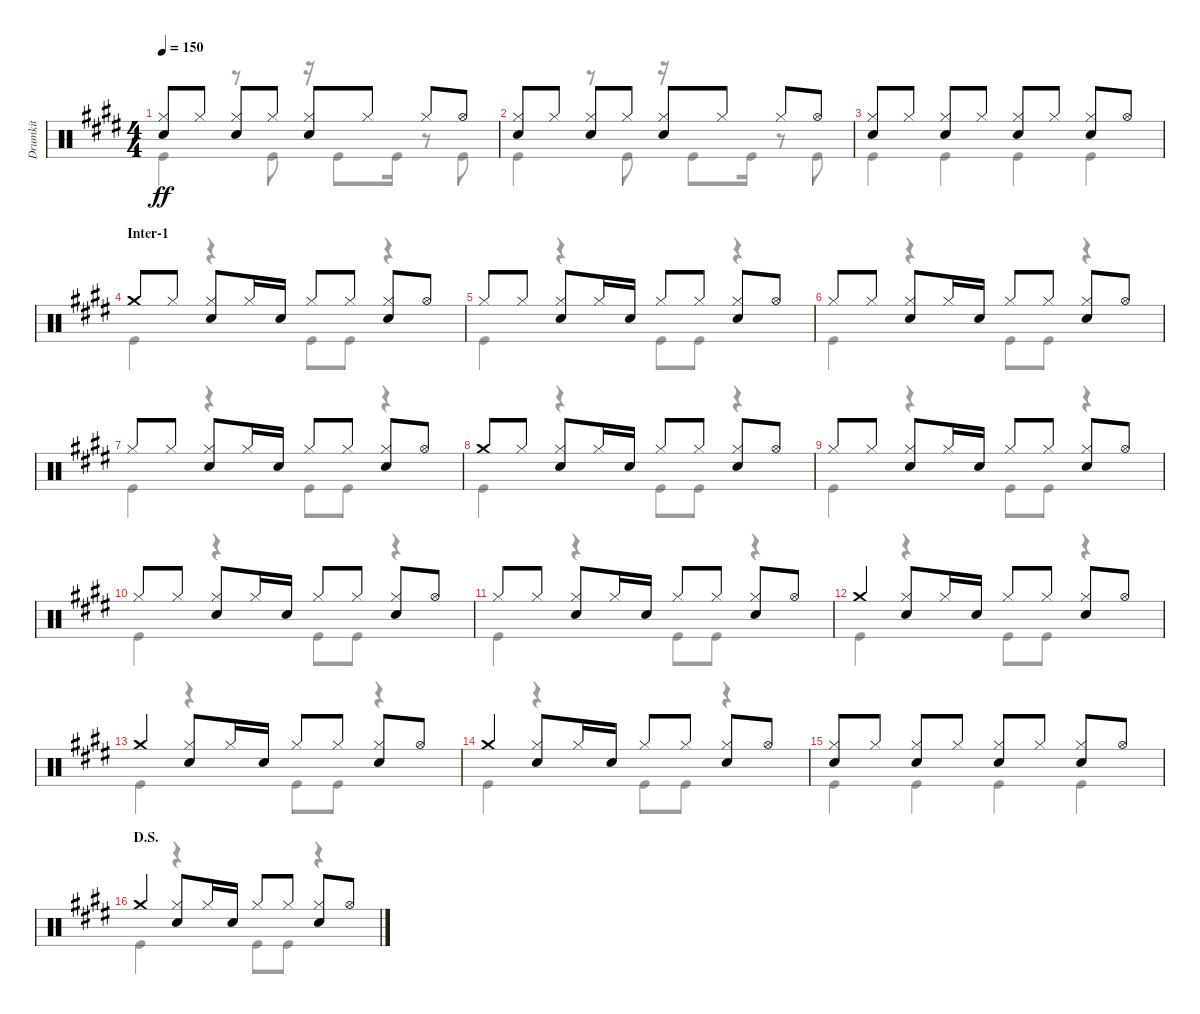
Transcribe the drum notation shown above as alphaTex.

\track ("Drumkit" "Drumkit") {instrument percussion}
\staff {score}
\articulation defaults
\voice
\ts (4 4)
\tempo 150
\clef neutral
\ks e
("Snare (hit) 2" "Hi-Hat (closed)").8{dy ff} "Hi-Hat (closed)".8 ("Hi-Hat (closed)" "Snare (hit) 2").8 "Hi-Hat (closed)".8 ("Hi-Hat (closed)" "Snare (hit) 2").8 "Hi-Hat (closed)".8 "Hi-Hat (closed)".8 "Hi-Hat (open)".8 |
("Snare (hit) 2" "Hi-Hat (closed)").8 "Hi-Hat (closed)".8 ("Hi-Hat (closed)" "Snare (hit) 2").8 "Hi-Hat (closed)".8 ("Hi-Hat (closed)" "Snare (hit) 2").8 "Hi-Hat (closed)".8 "Hi-Hat (closed)".8 "Hi-Hat (open)".8 |
("Snare (hit) 2" "Hi-Hat (closed)").8 "Hi-Hat (closed)".8 ("Hi-Hat (closed)" "Snare (hit) 2").8 "Hi-Hat (closed)".8 ("Hi-Hat (closed)" "Snare (hit) 2").8 "Hi-Hat (closed)".8 ("Hi-Hat (closed)" "Snare (hit) 2").8 "Hi-Hat (open)".8 |
\section ("" "Inter-1")
"Crash medium (hit)".8 "Hi-Hat (closed)".8 ("Hi-Hat (closed)" "Snare (hit) 2").8 "Hi-Hat (closed)".16 "Snare (hit) 2".16 "Hi-Hat (closed)".8 "Hi-Hat (closed)".8 ("Hi-Hat (closed)" "Snare (hit) 2").8 "Hi-Hat (open)".8 |
"Hi-Hat (closed)".8 "Hi-Hat (closed)".8 ("Hi-Hat (closed)" "Snare (hit) 2").8 "Hi-Hat (closed)".16 "Snare (hit) 2".16 "Hi-Hat (closed)".8 "Hi-Hat (closed)".8 ("Hi-Hat (closed)" "Snare (hit) 2").8 "Hi-Hat (open)".8 |
"Hi-Hat (closed)".8 "Hi-Hat (closed)".8 ("Hi-Hat (closed)" "Snare (hit) 2").8 "Hi-Hat (closed)".16 "Snare (hit) 2".16 "Hi-Hat (closed)".8 "Hi-Hat (closed)".8 ("Hi-Hat (closed)" "Snare (hit) 2").8 "Hi-Hat (open)".8 |
"Hi-Hat (closed)".8 "Hi-Hat (closed)".8 ("Hi-Hat (closed)" "Snare (hit) 2").8 "Hi-Hat (closed)".16 "Snare (hit) 2".16 "Hi-Hat (closed)".8 "Hi-Hat (closed)".8 ("Hi-Hat (closed)" "Snare (hit) 2").8 "Hi-Hat (open)".8 |
"Crash medium (hit)".8 "Hi-Hat (closed)".8 ("Hi-Hat (closed)" "Snare (hit) 2").8 "Hi-Hat (closed)".16 "Snare (hit) 2".16 "Hi-Hat (closed)".8 "Hi-Hat (closed)".8 ("Hi-Hat (closed)" "Snare (hit) 2").8 "Hi-Hat (open)".8 |
"Hi-Hat (closed)".8 "Hi-Hat (closed)".8 ("Hi-Hat (closed)" "Snare (hit) 2").8 "Hi-Hat (closed)".16 "Snare (hit) 2".16 "Hi-Hat (closed)".8 "Hi-Hat (closed)".8 ("Hi-Hat (closed)" "Snare (hit) 2").8 "Hi-Hat (open)".8 |
"Hi-Hat (closed)".8 "Hi-Hat (closed)".8 ("Hi-Hat (closed)" "Snare (hit) 2").8 "Hi-Hat (closed)".16 "Snare (hit) 2".16 "Hi-Hat (closed)".8 "Hi-Hat (closed)".8 ("Hi-Hat (closed)" "Snare (hit) 2").8 "Hi-Hat (open)".8 |
"Hi-Hat (closed)".8 "Hi-Hat (closed)".8 ("Hi-Hat (closed)" "Snare (hit) 2").8 "Hi-Hat (closed)".16 "Snare (hit) 2".16 "Hi-Hat (closed)".8 "Hi-Hat (closed)".8 ("Hi-Hat (closed)" "Snare (hit) 2").8 "Hi-Hat (open)".8 |
"Crash medium (hit)".4 ("Hi-Hat (closed)" "Snare (hit) 2").8 "Hi-Hat (closed)".16 "Snare (hit) 2".16 "Hi-Hat (closed)".8 "Hi-Hat (closed)".8 ("Hi-Hat (closed)" "Snare (hit) 2").8 "Hi-Hat (open)".8 |
"Crash medium (hit)".4 ("Hi-Hat (closed)" "Snare (hit) 2").8 "Hi-Hat (closed)".16 "Snare (hit) 2".16 "Hi-Hat (closed)".8 "Hi-Hat (closed)".8 ("Hi-Hat (closed)" "Snare (hit) 2").8 "Hi-Hat (open)".8 |
"Crash medium (hit)".4 ("Hi-Hat (closed)" "Snare (hit) 2").8 "Hi-Hat (closed)".16 "Snare (hit) 2".16 "Hi-Hat (closed)".8 "Hi-Hat (closed)".8 ("Hi-Hat (closed)" "Snare (hit) 2").8 "Hi-Hat (open)".8 |
("Snare (hit) 2" "Hi-Hat (closed)").8 "Hi-Hat (closed)".8 ("Hi-Hat (closed)" "Snare (hit) 2").8 "Hi-Hat (closed)".8 ("Hi-Hat (closed)" "Snare (hit) 2").8 "Hi-Hat (closed)".8 ("Hi-Hat (closed)" "Snare (hit) 2").8 "Hi-Hat (open)".8 |
\section ("" "D.S.")
"Crash medium (hit)".4 ("Hi-Hat (closed)" "Snare (hit) 2").8 "Hi-Hat (closed)".16 "Snare (hit) 2".16 "Hi-Hat (closed)".8 "Hi-Hat (closed)".8 ("Hi-Hat (closed)" "Snare (hit) 2").8 "Hi-Hat (open)".8
\voice
\clef neutral
\ottava regular
\simile none
\ks e "Kick (hit)".4{dy ff}
r.8 "Kick (hit)".8 r.16 "Kick (hit)".8 "Kick (hit)".16 r.8 "Kick (hit)".8 |
"Kick (hit)".4 r.8 "Kick (hit)".8 r.16 "Kick (hit)".8 "Kick (hit)".16 r.8 "Kick (hit)".8 |
"Kick (hit)".4 "Kick (hit)".4 "Kick (hit)".4 "Kick (hit)".4 |
"Kick (hit)".4 r.4 "Kick (hit)".8 "Kick (hit)".8 r.4 |
"Kick (hit)".4 r.4 "Kick (hit)".8 "Kick (hit)".8 r.4 |
"Kick (hit)".4 r.4 "Kick (hit)".8 "Kick (hit)".8 r.4 |
"Kick (hit)".4 r.4 "Kick (hit)".8 "Kick (hit)".8 r.4 |
"Kick (hit)".4 r.4 "Kick (hit)".8 "Kick (hit)".8 r.4 |
"Kick (hit)".4 r.4 "Kick (hit)".8 "Kick (hit)".8 r.4 |
"Kick (hit)".4 r.4 "Kick (hit)".8 "Kick (hit)".8 r.4 |
"Kick (hit)".4 r.4 "Kick (hit)".8 "Kick (hit)".8 r.4 |
"Kick (hit)".4 r.4 "Kick (hit)".8 "Kick (hit)".8 r.4 |
"Kick (hit)".4 r.4 "Kick (hit)".8 "Kick (hit)".8 r.4 |
"Kick (hit)".4 r.4 "Kick (hit)".8 "Kick (hit)".8 r.4 |
"Kick (hit)".4 "Kick (hit)".4 "Kick (hit)".4 "Kick (hit)".4 |
"Kick (hit)".4 r.4 "Kick (hit)".8 "Kick (hit)".8 r.4
